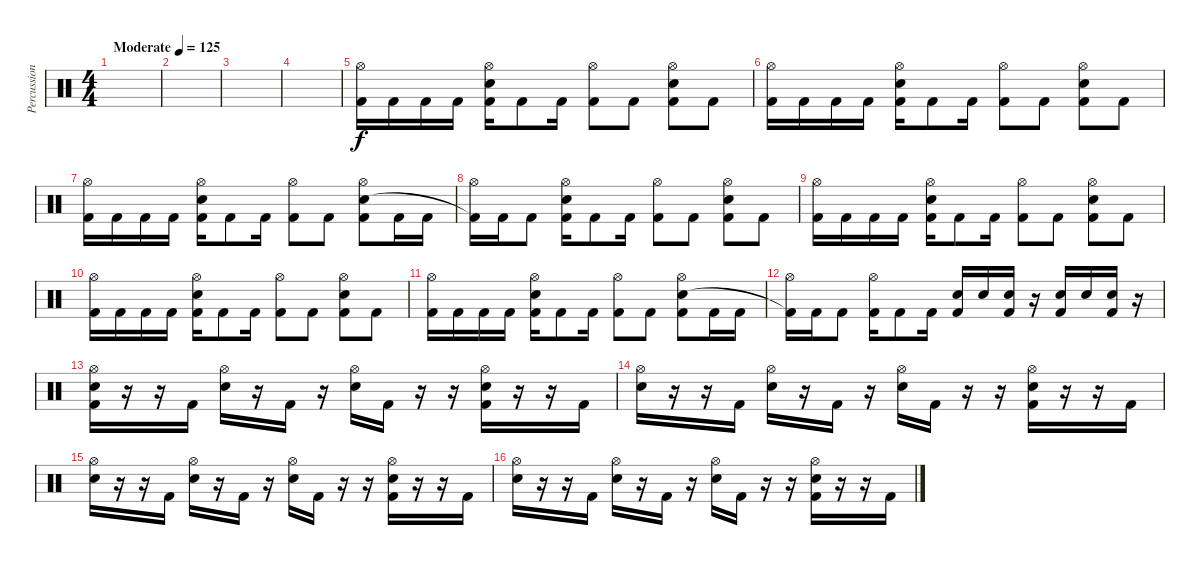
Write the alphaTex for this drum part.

\track ("Percussion" "Percussion") {instrument percussion}
\staff {score}
\articulation defaults
\ts (4 4)
\tempo (125 "Moderate")
\clef neutral
\ks c
|
|
|
|
("Hi-Hat (open)" "Kick (hit) 2").16 "Kick (hit) 2".16 "Kick (hit) 2".16 "Kick (hit) 2".16 ("Hi-Hat (open)" "Electric Snare (hit)" "Kick (hit) 2").16 "Kick (hit) 2".8 "Kick (hit) 2".16 ("Hi-Hat (open)" "Kick (hit) 2").8 "Kick (hit) 2".8 ("Hi-Hat (open)" "Electric Snare (hit)" "Kick (hit) 2").8 "Kick (hit) 2".8 |
("Hi-Hat (open)" "Kick (hit) 2").16 "Kick (hit) 2".16 "Kick (hit) 2".16 "Kick (hit) 2".16 ("Hi-Hat (open)" "Electric Snare (hit)" "Kick (hit) 2").16 "Kick (hit) 2".8 "Kick (hit) 2".16 ("Hi-Hat (open)" "Kick (hit) 2").8 "Kick (hit) 2".8 ("Hi-Hat (open)" "Electric Snare (hit)" "Kick (hit) 2").8 "Kick (hit) 2".8 |
("Hi-Hat (open)" "Kick (hit) 2").16 "Kick (hit) 2".16 "Kick (hit) 2".16 "Kick (hit) 2".16 ("Hi-Hat (open)" "Electric Snare (hit)" "Kick (hit) 2").16 "Kick (hit) 2".8 "Kick (hit) 2".16 ("Hi-Hat (open)" "Kick (hit) 2").8 "Kick (hit) 2".8 ("Hi-Hat (open)" "Electric Snare (hit)" "Kick (hit) 2").8 "Kick (hit) 2".16 "Kick (hit) 2".16 |
("Hi-Hat (open)" "Kick (hit) 2"{t}).16 "Kick (hit) 2".16 "Kick (hit) 2".8 ("Hi-Hat (open)" "Electric Snare (hit)" "Kick (hit) 2").16 "Kick (hit) 2".8 "Kick (hit) 2".16 ("Hi-Hat (open)" "Kick (hit) 2").8 "Kick (hit) 2".8 ("Hi-Hat (open)" "Electric Snare (hit)" "Kick (hit) 2").8 "Kick (hit) 2".8 |
("Hi-Hat (open)" "Kick (hit) 2").16 "Kick (hit) 2".16 "Kick (hit) 2".16 "Kick (hit) 2".16 ("Hi-Hat (open)" "Electric Snare (hit)" "Kick (hit) 2").16 "Kick (hit) 2".8 "Kick (hit) 2".16 ("Hi-Hat (open)" "Kick (hit) 2").8 "Kick (hit) 2".8 ("Hi-Hat (open)" "Electric Snare (hit)" "Kick (hit) 2").8 "Kick (hit) 2".8 |
("Hi-Hat (open)" "Kick (hit) 2").16 "Kick (hit) 2".16 "Kick (hit) 2".16 "Kick (hit) 2".16 ("Hi-Hat (open)" "Electric Snare (hit)" "Kick (hit) 2").16 "Kick (hit) 2".8 "Kick (hit) 2".16 ("Hi-Hat (open)" "Kick (hit) 2").8 "Kick (hit) 2".8 ("Hi-Hat (open)" "Electric Snare (hit)" "Kick (hit) 2").8 "Kick (hit) 2".8 |
("Hi-Hat (open)" "Kick (hit) 2").16 "Kick (hit) 2".16 "Kick (hit) 2".16 "Kick (hit) 2".16 ("Hi-Hat (open)" "Electric Snare (hit)" "Kick (hit) 2").16 "Kick (hit) 2".8 "Kick (hit) 2".16 ("Hi-Hat (open)" "Kick (hit) 2").8 "Kick (hit) 2".8 ("Hi-Hat (open)" "Electric Snare (hit)" "Kick (hit) 2").8 "Kick (hit) 2".16 "Kick (hit) 2".16 |
("Hi-Hat (open)" "Kick (hit) 2"{t}).16 "Kick (hit) 2".16 "Kick (hit) 2".8 ("Hi-Hat (open)" "Kick (hit) 2").16 "Kick (hit) 2".8 "Kick (hit) 2".16 ("Electric Snare (hit)" "Kick (hit) 2").16 "Electric Snare (hit)".16 ("Electric Snare (hit)" "Kick (hit) 2").16 r.16 ("Electric Snare (hit)" "Kick (hit) 2").16 "Electric Snare (hit)".16 ("Electric Snare (hit)" "Kick (hit) 2").16 r.16 |
("Hi-Hat (open)" "Electric Snare (hit)" "Kick (hit) 2").16 r.16 r.16 "Kick (hit) 2".16 ("Hi-Hat (open)" "Electric Snare (hit)").16 r.16 "Kick (hit) 2".16 r.16 ("Hi-Hat (open)" "Electric Snare (hit)").16 "Kick (hit) 2".16 r.16 r.16 ("Hi-Hat (open)" "Electric Snare (hit)" "Kick (hit) 2").16 r.16 r.16 "Kick (hit) 2".16 |
("Hi-Hat (open)" "Electric Snare (hit)").16 r.16 r.16 "Kick (hit) 2".16 ("Hi-Hat (open)" "Electric Snare (hit)").16 r.16 "Kick (hit) 2".16 r.16 ("Hi-Hat (open)" "Electric Snare (hit)").16 "Kick (hit) 2".16 r.16 r.16 ("Hi-Hat (open)" "Electric Snare (hit)" "Kick (hit) 2").16 r.16 r.16 "Kick (hit) 2".16 |
("Hi-Hat (open)" "Electric Snare (hit)").16 r.16 r.16 "Kick (hit) 2".16 ("Hi-Hat (open)" "Electric Snare (hit)").16 r.16 "Kick (hit) 2".16 r.16 ("Hi-Hat (open)" "Electric Snare (hit)").16 "Kick (hit) 2".16 r.16 r.16 ("Hi-Hat (open)" "Electric Snare (hit)" "Kick (hit) 2").16 r.16 r.16 "Kick (hit) 2".16 |
("Hi-Hat (open)" "Electric Snare (hit)").16 r.16 r.16 "Kick (hit) 2".16 ("Hi-Hat (open)" "Electric Snare (hit)").16 r.16 "Kick (hit) 2".16 r.16 ("Hi-Hat (open)" "Electric Snare (hit)").16 "Kick (hit) 2".16 r.16 r.16 ("Hi-Hat (open)" "Electric Snare (hit)" "Kick (hit) 2").16 r.16 r.16 "Kick (hit) 2".16
